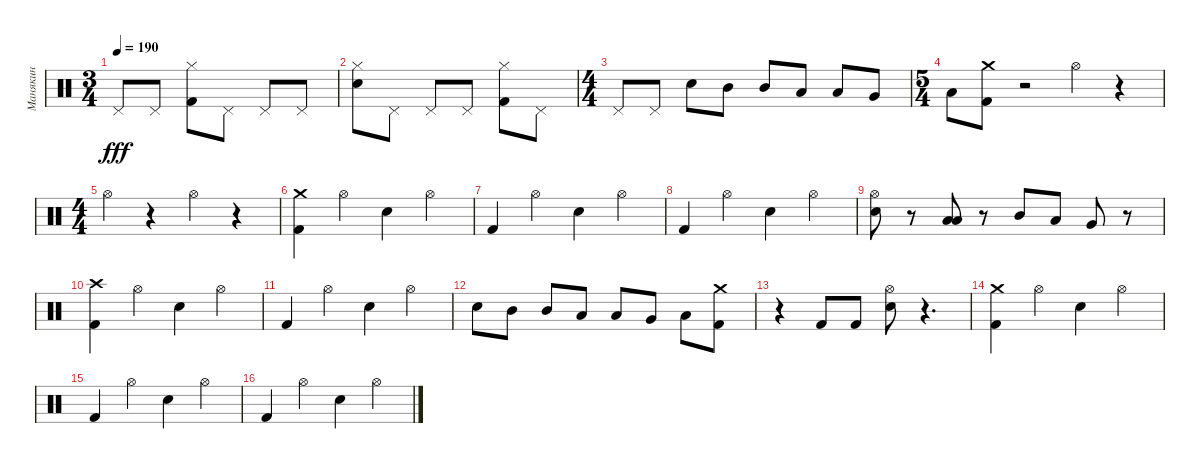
\track ("Манякин" "Манякин") {instrument percussion}
\staff {score}
\articulation defaults
\ts (3 4)
\tempo 190
\clef neutral
\ks c "Pedal Hi-Hat (hit)".8{dy fff} "Pedal Hi-Hat (hit)".8
("Hi-Hat (closed)" "Kick (hit) 2").8 "Pedal Hi-Hat (hit)".8 "Pedal Hi-Hat (hit)".8 "Pedal Hi-Hat (hit)".8 |
("Hi-Hat (closed)" "Snare (hit) 2").8 "Pedal Hi-Hat (hit)".8 "Pedal Hi-Hat (hit)".8 "Pedal Hi-Hat (hit)".8 ("Hi-Hat (closed)" "Kick (hit) 2").8 "Pedal Hi-Hat (hit)".8 |
\ts (4 4)
"Pedal Hi-Hat (hit)".8 "Pedal Hi-Hat (hit)".8 "Snare (hit) 2".8 "Mid Tom (hit)".8 "Mid Tom (hit)".8 "Low Tom (hit)".8 "Low Tom (hit)".8 "Very Low Tom (hit)".8 |
\ts (5 4)
"Low Floor Tom (hit)".8 ("Crash medium (hit)" "Kick (hit) 2").8 r.2 "Hi-Hat (open)".4 r.4 |
\ts (4 4)
"Hi-Hat (open)".4 r.4 "Hi-Hat (open)".4 r.4 |
("Kick (hit) 2" "Crash medium (hit)").4 "Hi-Hat (open)".4 "Snare (hit) 2".4 "Hi-Hat (open)".4 |
"Kick (hit) 2".4 "Hi-Hat (open)".4 "Snare (hit) 2".4 "Hi-Hat (open)".4 |
"Kick (hit) 2".4 "Hi-Hat (open)".4 "Snare (hit) 2".4 "Hi-Hat (open)".4 |
("Hi-Hat (open)" "Snare (hit) 2").8 r.8 ("Low Tom (hit)" "Low Floor Tom (hit)").8 r.8 "Mid Tom (hit)".8 "Low Tom (hit)".8 "Very Low Tom (hit)".8 r.8 |
("Kick (hit) 2" "Crash high (hit)").4 "Hi-Hat (open)".4 "Snare (hit) 2".4 "Hi-Hat (open)".4 |
"Kick (hit) 2".4 "Hi-Hat (open)".4 "Snare (hit) 2".4 "Hi-Hat (open)".4 |
"Snare (hit) 2".8 "Mid Tom (hit)".8 "Mid Tom (hit)".8 "Low Tom (hit)".8 "Low Tom (hit)".8 "Very Low Tom (hit)".8 "Low Floor Tom (hit)".8 ("Crash medium (hit)" "Kick (hit) 2").8 |
r.4 "Kick (hit) 2".8 "Kick (hit) 2".8 ("Hi-Hat (open)" "Snare (hit) 2").8 r.4{d} |
("Kick (hit) 2" "Crash medium (hit)").4 "Hi-Hat (open)".4 "Snare (hit) 2".4 "Hi-Hat (open)".4 |
"Kick (hit) 2".4 "Hi-Hat (open)".4 "Snare (hit) 2".4 "Hi-Hat (open)".4 |
"Kick (hit) 2".4 "Hi-Hat (open)".4 "Snare (hit) 2".4 "Hi-Hat (open)".4
